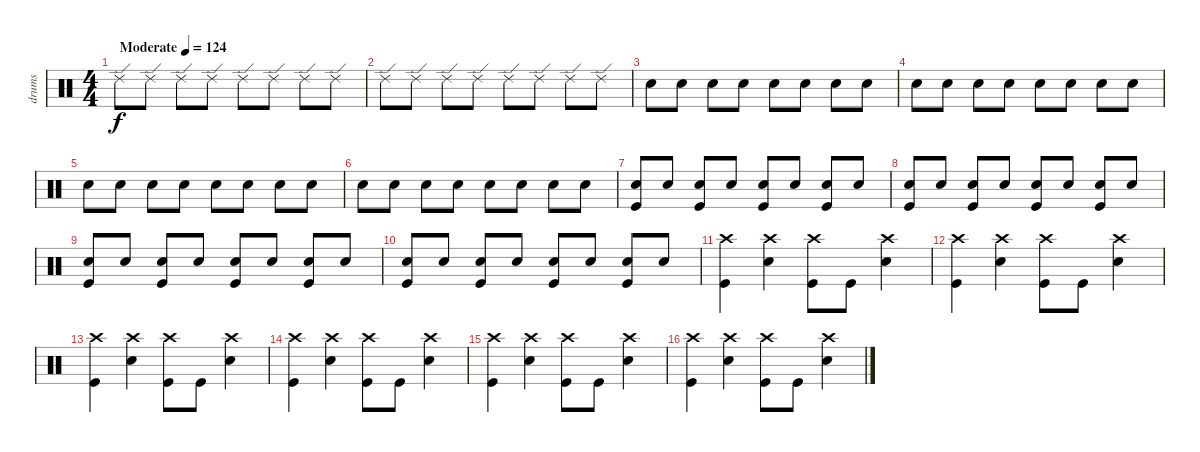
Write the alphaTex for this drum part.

\track ("drums" "drums") {instrument percussion}
\staff {score}
\articulation defaults
\ts (4 4)
\tempo (124 "Moderate")
\clef neutral
\ks c "Ride (edge) 2".8{dy f} "Ride (edge) 2".8 "Ride (edge) 2".8 "Ride (edge) 2".8 "Ride (edge) 2".8 "Ride (edge) 2".8 "Ride (edge) 2".8 "Ride (edge) 2".8
|
"Ride (edge) 2".8 "Ride (edge) 2".8 "Ride (edge) 2".8 "Ride (edge) 2".8 "Ride (edge) 2".8 "Ride (edge) 2".8 "Ride (edge) 2".8 "Ride (edge) 2".8 |
"Electric Snare (hit)".8 "Electric Snare (hit)".8 "Electric Snare (hit)".8 "Electric Snare (hit)".8 "Electric Snare (hit)".8 "Electric Snare (hit)".8 "Electric Snare (hit)".8 "Electric Snare (hit)".8 |
"Electric Snare (hit)".8 "Electric Snare (hit)".8 "Electric Snare (hit)".8 "Electric Snare (hit)".8 "Electric Snare (hit)".8 "Electric Snare (hit)".8 "Electric Snare (hit)".8 "Electric Snare (hit)".8 |
"Electric Snare (hit)".8 "Electric Snare (hit)".8 "Electric Snare (hit)".8 "Electric Snare (hit)".8 "Electric Snare (hit)".8 "Electric Snare (hit)".8 "Electric Snare (hit)".8 "Electric Snare (hit)".8 |
"Electric Snare (hit)".8 "Electric Snare (hit)".8 "Electric Snare (hit)".8 "Electric Snare (hit)".8 "Electric Snare (hit)".8 "Electric Snare (hit)".8 "Electric Snare (hit)".8 "Electric Snare (hit)".8 |
("Electric Snare (hit)" "Kick (hit)").8 "Electric Snare (hit)".8 ("Electric Snare (hit)" "Kick (hit)").8 "Electric Snare (hit)".8 ("Electric Snare (hit)" "Kick (hit)").8 "Electric Snare (hit)".8 ("Electric Snare (hit)" "Kick (hit)").8 "Electric Snare (hit)".8 |
("Electric Snare (hit)" "Kick (hit)").8 "Electric Snare (hit)".8 ("Electric Snare (hit)" "Kick (hit)").8 "Electric Snare (hit)".8 ("Electric Snare (hit)" "Kick (hit)").8 "Electric Snare (hit)".8 ("Electric Snare (hit)" "Kick (hit)").8 "Electric Snare (hit)".8 |
("Electric Snare (hit)" "Kick (hit)").8 "Electric Snare (hit)".8 ("Electric Snare (hit)" "Kick (hit)").8 "Electric Snare (hit)".8 ("Electric Snare (hit)" "Kick (hit)").8 "Electric Snare (hit)".8 ("Electric Snare (hit)" "Kick (hit)").8 "Electric Snare (hit)".8 |
("Electric Snare (hit)" "Kick (hit)").8 "Electric Snare (hit)".8 ("Electric Snare (hit)" "Kick (hit)").8 "Electric Snare (hit)".8 ("Electric Snare (hit)" "Kick (hit)").8 "Electric Snare (hit)".8 ("Electric Snare (hit)" "Kick (hit)").8 "Electric Snare (hit)".8 |
("Crash high (hit)" "Kick (hit)").4 ("Crash high (hit)" "Snare (hit) 2").4 ("Crash high (hit)" "Kick (hit)").8 "Kick (hit)".8 ("Crash high (hit)" "Snare (hit) 2").4 |
("Crash high (hit)" "Kick (hit)").4 ("Crash high (hit)" "Snare (hit) 2").4 ("Crash high (hit)" "Kick (hit)").8 "Kick (hit)".8 ("Crash high (hit)" "Snare (hit) 2").4 |
("Crash high (hit)" "Kick (hit)").4 ("Crash high (hit)" "Snare (hit) 2").4 ("Crash high (hit)" "Kick (hit)").8 "Kick (hit)".8 ("Crash high (hit)" "Snare (hit) 2").4 |
("Crash high (hit)" "Kick (hit)").4 ("Crash high (hit)" "Snare (hit) 2").4 ("Crash high (hit)" "Kick (hit)").8 "Kick (hit)".8 ("Crash high (hit)" "Snare (hit) 2").4 |
("Crash high (hit)" "Kick (hit)").4 ("Crash high (hit)" "Snare (hit) 2").4 ("Crash high (hit)" "Kick (hit)").8 "Kick (hit)".8 ("Crash high (hit)" "Snare (hit) 2").4 |
("Crash high (hit)" "Kick (hit)").4 ("Crash high (hit)" "Snare (hit) 2").4 ("Crash high (hit)" "Kick (hit)").8 "Kick (hit)".8 ("Crash high (hit)" "Snare (hit) 2").4
